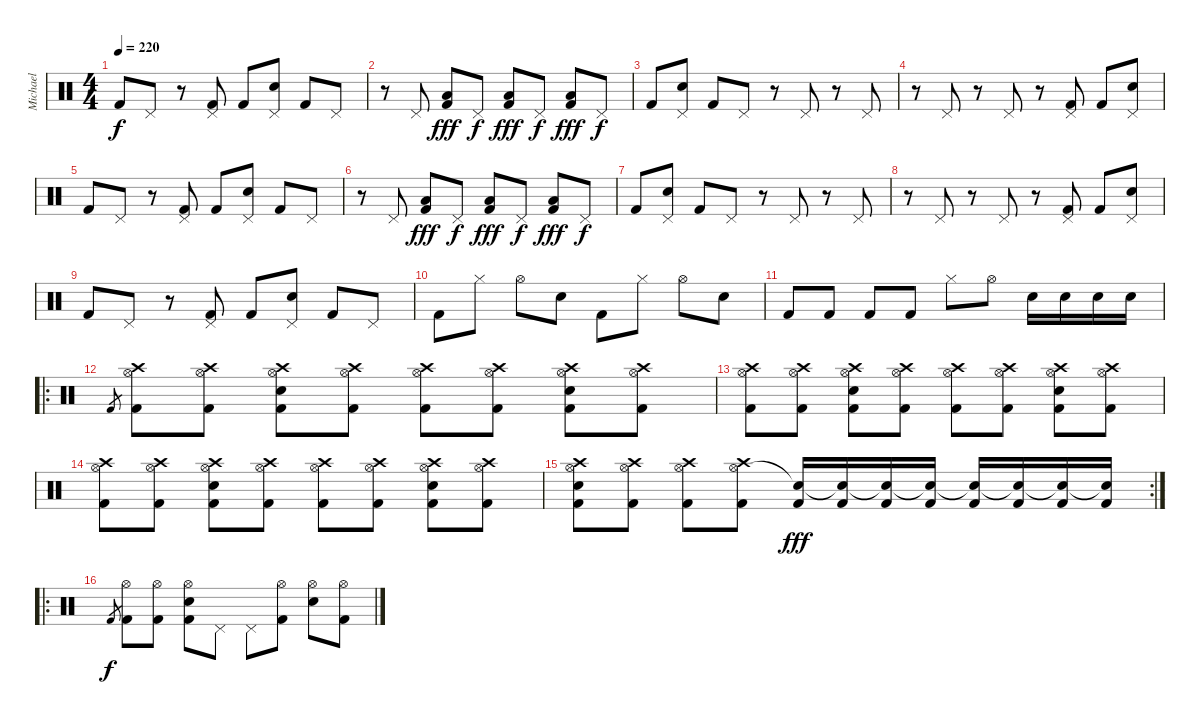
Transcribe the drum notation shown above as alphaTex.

\track ("Michael" "Michael") {instrument percussion}
\staff {score}
\articulation defaults
\ts (4 4)
\tempo 220
\clef neutral
\ks c "Kick (hit) 2".8{dy f} "Pedal Hi-Hat (hit)".8
r.8 ("Pedal Hi-Hat (hit)" "Kick (hit) 2").8 "Kick (hit) 2".8 ("Pedal Hi-Hat (hit)" "Electric Snare (hit)").8 "Kick (hit) 2".8 "Pedal Hi-Hat (hit)".8 |
r.8 "Pedal Hi-Hat (hit)".8 ("Low Floor Tom (hit)" "Kick (hit) 2").8{dy fff} "Pedal Hi-Hat (hit)".8{dy f} ("Low Floor Tom (hit)" "Kick (hit) 2").8{dy fff} "Pedal Hi-Hat (hit)".8{dy f} ("Low Floor Tom (hit)" "Kick (hit) 2").8{dy fff} "Pedal Hi-Hat (hit)".8{dy f} |
"Kick (hit) 2".8 ("Pedal Hi-Hat (hit)" "Electric Snare (hit)").8 "Kick (hit) 2".8 "Pedal Hi-Hat (hit)".8 r.8 "Pedal Hi-Hat (hit)".8 r.8 "Pedal Hi-Hat (hit)".8 |
r.8 "Pedal Hi-Hat (hit)".8 r.8 "Pedal Hi-Hat (hit)".8 r.8 ("Pedal Hi-Hat (hit)" "Kick (hit) 2").8 "Kick (hit) 2".8 ("Pedal Hi-Hat (hit)" "Electric Snare (hit)").8 |
"Kick (hit) 2".8 "Pedal Hi-Hat (hit)".8 r.8 ("Pedal Hi-Hat (hit)" "Kick (hit) 2").8 "Kick (hit) 2".8 ("Pedal Hi-Hat (hit)" "Electric Snare (hit)").8 "Kick (hit) 2".8 "Pedal Hi-Hat (hit)".8 |
r.8 "Pedal Hi-Hat (hit)".8 ("Low Floor Tom (hit)" "Kick (hit) 2").8{dy fff} "Pedal Hi-Hat (hit)".8{dy f} ("Low Floor Tom (hit)" "Kick (hit) 2").8{dy fff} "Pedal Hi-Hat (hit)".8{dy f} ("Low Floor Tom (hit)" "Kick (hit) 2").8{dy fff} "Pedal Hi-Hat (hit)".8{dy f} |
"Kick (hit) 2".8 ("Pedal Hi-Hat (hit)" "Electric Snare (hit)").8 "Kick (hit) 2".8 "Pedal Hi-Hat (hit)".8 r.8 "Pedal Hi-Hat (hit)".8 r.8 "Pedal Hi-Hat (hit)".8 |
r.8 "Pedal Hi-Hat (hit)".8 r.8 "Pedal Hi-Hat (hit)".8 r.8 ("Pedal Hi-Hat (hit)" "Kick (hit) 2").8 "Kick (hit) 2".8 ("Pedal Hi-Hat (hit)" "Electric Snare (hit)").8 |
"Kick (hit) 2".8 "Pedal Hi-Hat (hit)".8 r.8 ("Pedal Hi-Hat (hit)" "Kick (hit) 2").8 "Kick (hit) 2".8 ("Pedal Hi-Hat (hit)" "Electric Snare (hit)").8 "Kick (hit) 2".8 "Pedal Hi-Hat (hit)".8 |
"Kick (hit) 2".8 "Hi-Hat (closed)".8 "Hi-Hat (open)".8 "Electric Snare (hit)".8 "Kick (hit) 2".8 "Hi-Hat (closed)".8 "Hi-Hat (open)".8 "Electric Snare (hit)".8 |
"Kick (hit) 2".8 "Kick (hit) 2".8 "Kick (hit) 2".8 "Kick (hit) 2".8 "Hi-Hat (closed)".8 "Hi-Hat (open)".8 "Electric Snare (hit)".16 "Electric Snare (hit)".16 "Electric Snare (hit)".16 "Electric Snare (hit)".16 |
\ro "Kick (hit) 2".8{gr}
("Crash high (hit)" "Hi-Hat (open)" "Kick (hit) 2").8 ("Crash high (hit)" "Hi-Hat (open)" "Kick (hit) 2").8 ("Crash high (hit)" "Hi-Hat (open)" "Electric Snare (hit)" "Kick (hit) 2").8 ("Crash high (hit)" "Hi-Hat (open)" "Kick (hit) 2").8 ("Crash high (hit)" "Hi-Hat (open)" "Kick (hit) 2").8 ("Crash high (hit)" "Hi-Hat (open)" "Kick (hit) 2").8 ("Crash high (hit)" "Hi-Hat (open)" "Electric Snare (hit)" "Kick (hit) 2").8 ("Crash high (hit)" "Hi-Hat (open)" "Kick (hit) 2").8 |
("Hi-Hat (open)" "Crash high (hit)" "Kick (hit) 2").8 ("Hi-Hat (open)" "Crash high (hit)" "Kick (hit) 2").8 ("Hi-Hat (open)" "Crash high (hit)" "Electric Snare (hit)" "Kick (hit) 2").8 ("Hi-Hat (open)" "Crash high (hit)" "Kick (hit) 2").8 ("Hi-Hat (open)" "Crash high (hit)" "Kick (hit) 2").8 ("Hi-Hat (open)" "Crash high (hit)" "Kick (hit) 2").8 ("Hi-Hat (open)" "Crash high (hit)" "Electric Snare (hit)" "Kick (hit) 2").8 ("Hi-Hat (open)" "Crash high (hit)" "Kick (hit) 2").8 |
("Hi-Hat (open)" "Crash high (hit)" "Kick (hit) 2").8 ("Hi-Hat (open)" "Crash high (hit)" "Kick (hit) 2").8 ("Hi-Hat (open)" "Crash high (hit)" "Electric Snare (hit)" "Kick (hit) 2").8 ("Hi-Hat (open)" "Crash high (hit)" "Kick (hit) 2").8 ("Hi-Hat (open)" "Crash high (hit)" "Kick (hit) 2").8 ("Hi-Hat (open)" "Crash high (hit)" "Kick (hit) 2").8 ("Hi-Hat (open)" "Crash high (hit)" "Electric Snare (hit)" "Kick (hit) 2").8 ("Hi-Hat (open)" "Crash high (hit)" "Kick (hit) 2").8 |
\rc 2
("Hi-Hat (open)" "Crash high (hit)" "Electric Snare (hit)" "Kick (hit) 2").8 ("Hi-Hat (open)" "Crash high (hit)" "Kick (hit) 2").8 ("Hi-Hat (open)" "Crash high (hit)" "Kick (hit) 2").8 ("Hi-Hat (open)" "Crash high (hit)" "Kick (hit) 2").8 ("Snare (hit)"{t} "Kick (hit) 2").16{dy fff} ("Snare (hit)"{t} "Kick (hit) 2").16 ("Snare (hit)"{t} "Kick (hit) 2").16 ("Snare (hit)"{t} "Kick (hit) 2").16 ("Snare (hit)"{t} "Kick (hit) 2").16 ("Snare (hit)"{t} "Kick (hit) 2").16 ("Snare (hit)"{t} "Kick (hit) 2").16 ("Snare (hit)"{t} "Kick (hit) 2").16 |
\ro "Kick (hit) 2".8{gr dy f}
("Hi-Hat (open)" "Kick (hit) 2").8 ("Hi-Hat (open)" "Kick (hit) 2").8 ("Hi-Hat (open)" "Electric Snare (hit)" "Kick (hit) 2").8 "Pedal Hi-Hat (hit)".8 "Pedal Hi-Hat (hit)".8 ("Hi-Hat (open)" "Kick (hit) 2").8 ("Hi-Hat (open)" "Electric Snare (hit)").8 ("Hi-Hat (open)" "Kick (hit) 2").8
